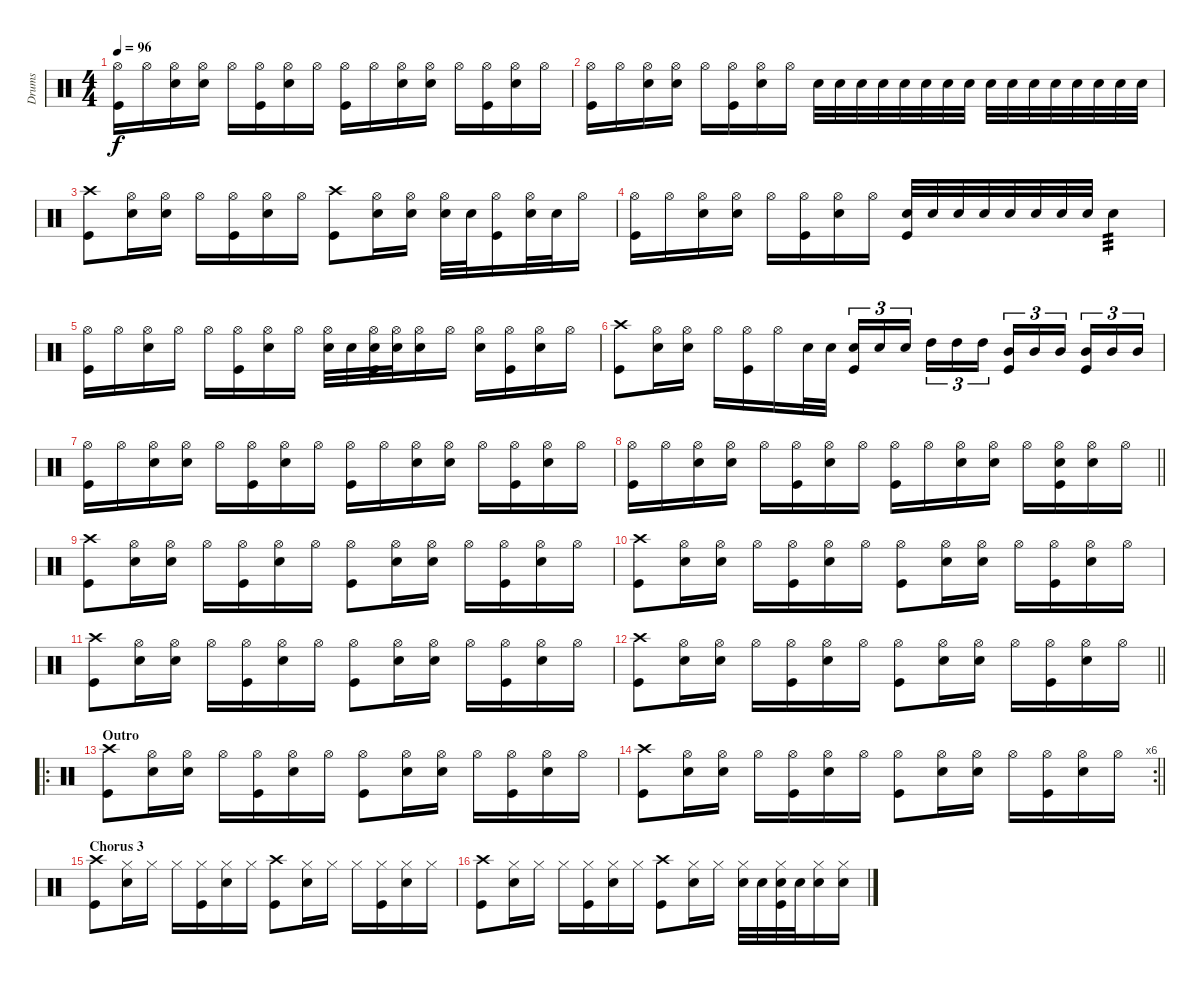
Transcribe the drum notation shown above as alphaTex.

\track ("Drums" "Drums") {instrument percussion}
\staff {score}
\articulation defaults
\ts (4 4)
\tempo 96
\clef neutral
\ks c
("Hi-Hat (open)" "Kick (hit)").16{dy f} "Hi-Hat (open)".16 ("Hi-Hat (open)" "Snare (hit) 2").16 ("Hi-Hat (open)" "Snare (hit) 2").16 "Hi-Hat (open)".16 ("Hi-Hat (open)" "Kick (hit)").16 ("Hi-Hat (open)" "Snare (hit) 2").16 "Hi-Hat (open)".16 ("Hi-Hat (open)" "Kick (hit)").16 "Hi-Hat (open)".16 ("Hi-Hat (open)" "Snare (hit) 2").16 ("Hi-Hat (open)" "Snare (hit) 2").16 "Hi-Hat (open)".16 ("Hi-Hat (open)" "Kick (hit)").16 ("Hi-Hat (open)" "Snare (hit) 2").16 "Hi-Hat (open)".16 |
("Hi-Hat (open)" "Kick (hit)").16 "Hi-Hat (open)".16 ("Hi-Hat (open)" "Snare (hit) 2").16 ("Hi-Hat (open)" "Snare (hit) 2").16 "Hi-Hat (open)".16 ("Hi-Hat (open)" "Kick (hit)").16 ("Hi-Hat (open)" "Snare (hit) 2").16 "Hi-Hat (open)".16 "Snare (hit) 2".32 "Snare (hit) 2".32 "Snare (hit) 2".32 "Snare (hit) 2".32 "Snare (hit) 2".32 "Snare (hit) 2".32 "Snare (hit) 2".32 "Snare (hit) 2".32 "Snare (hit) 2".32 "Snare (hit) 2".32 "Snare (hit) 2".32 "Snare (hit) 2".32 "Snare (hit) 2".32 "Snare (hit) 2".32 "Snare (hit) 2".32 "Snare (hit) 2".32 |
("Crash high (hit)" "Kick (hit)").8 ("Hi-Hat (open)" "Snare (hit) 2").16 ("Hi-Hat (open)" "Snare (hit) 2").16 "Hi-Hat (open)".16 ("Hi-Hat (open)" "Kick (hit)").16 ("Hi-Hat (open)" "Snare (hit) 2").16 "Hi-Hat (open)".16 ("Crash high (hit)" "Kick (hit)").8 ("Hi-Hat (open)" "Snare (hit) 2").16 ("Hi-Hat (open)" "Snare (hit) 2").16 ("Hi-Hat (open)" "Snare (hit) 2").32 "Snare (hit) 2".32 ("Hi-Hat (open)" "Kick (hit)").16 ("Hi-Hat (open)" "Snare (hit) 2").32 "Snare (hit) 2".32 "Hi-Hat (open)".16 |
("Hi-Hat (open)" "Kick (hit)").16 "Hi-Hat (open)".16 ("Hi-Hat (open)" "Snare (hit) 2").16 ("Hi-Hat (open)" "Snare (hit) 2").16 "Hi-Hat (open)".16 ("Hi-Hat (open)" "Kick (hit)").16 ("Hi-Hat (open)" "Snare (hit) 2").16 "Hi-Hat (open)".16 ("Snare (hit) 2" "Kick (hit)").32 "Snare (hit) 2".32 "Snare (hit) 2".32 "Snare (hit) 2".32 "Snare (hit) 2".32 "Snare (hit) 2".32 "Snare (hit) 2".32 "Snare (hit) 2".32 "Snare (hit) 2".4{tp 3} |
("Hi-Hat (open)" "Kick (hit)").16 "Hi-Hat (open)".16 ("Hi-Hat (open)" "Snare (hit) 2").16 "Hi-Hat (open)".16 "Hi-Hat (open)".16 ("Hi-Hat (open)" "Kick (hit)").16 ("Hi-Hat (open)" "Snare (hit) 2").16 "Hi-Hat (open)".16 ("Hi-Hat (open)" "Snare (hit) 2").32 "Snare (hit) 2".32 ("Hi-Hat (open)" "Snare (hit) 2" "Kick (hit)").32 ("Hi-Hat (open)" "Snare (hit) 2").32 ("Hi-Hat (open)" "Snare (hit) 2").16 "Hi-Hat (open)".16 ("Hi-Hat (open)" "Snare (hit) 2").16 ("Hi-Hat (open)" "Kick (hit)").16 ("Hi-Hat (open)" "Snare (hit) 2").16 "Hi-Hat (open)".16 |
("Crash high (hit)" "Kick (hit)").8 ("Hi-Hat (open)" "Snare (hit) 2").16 ("Hi-Hat (open)" "Snare (hit) 2").16 "Hi-Hat (open)".16 ("Hi-Hat (open)" "Kick (hit)").16 "Hi-Hat (open)".16 "Snare (hit) 2".32 "Snare (hit) 2".32 ("Snare (hit) 2" "Kick (hit)").16{tu (3 2)} "Snare (hit) 2".16{tu (3 2)} "Snare (hit) 2".16{tu (3 2) beam splitsecondary} "High Tom (hit)".16{tu (3 2)} "High Tom (hit)".16{tu (3 2)} "High Tom (hit)".16{tu (3 2)} ("Mid Tom (hit)" "Kick (hit)").16{tu (3 2)} "Mid Tom (hit)".16{tu (3 2)} "Mid Tom (hit)".16{tu (3 2) beam splitsecondary} ("Mid Tom (hit)" "Kick (hit)").16{tu (3 2)} "Mid Tom (hit)".16{tu (3 2)} "Mid Tom (hit)".16{tu (3 2)} |
("Hi-Hat (open)" "Kick (hit)").16 "Hi-Hat (open)".16 ("Hi-Hat (open)" "Snare (hit) 2").16 ("Hi-Hat (open)" "Snare (hit) 2").16 "Hi-Hat (open)".16 ("Hi-Hat (open)" "Kick (hit)").16 ("Hi-Hat (open)" "Snare (hit) 2").16 "Hi-Hat (open)".16 ("Hi-Hat (open)" "Kick (hit)").16 "Hi-Hat (open)".16 ("Hi-Hat (open)" "Snare (hit) 2").16 ("Hi-Hat (open)" "Snare (hit) 2").16 "Hi-Hat (open)".16 ("Hi-Hat (open)" "Kick (hit)").16 ("Hi-Hat (open)" "Snare (hit) 2").16 "Hi-Hat (open)".16 |
\barLineRight lightlight
("Hi-Hat (open)" "Kick (hit)").16 "Hi-Hat (open)".16 ("Hi-Hat (open)" "Snare (hit) 2").16 ("Hi-Hat (open)" "Snare (hit) 2").16 "Hi-Hat (open)".16 ("Hi-Hat (open)" "Kick (hit)").16 ("Hi-Hat (open)" "Snare (hit) 2").16 "Hi-Hat (open)".16 ("Hi-Hat (open)" "Kick (hit)").16 "Hi-Hat (open)".16 ("Hi-Hat (open)" "Snare (hit) 2").16 ("Hi-Hat (open)" "Snare (hit) 2").16 "Hi-Hat (open)".16 ("Hi-Hat (open)" "Snare (hit) 2" "Kick (hit)").16 ("Hi-Hat (open)" "Snare (hit) 2").16 "Hi-Hat (open)".16 |
("Crash high (hit)" "Kick (hit)").8 ("Hi-Hat (open)" "Snare (hit) 2").16 ("Hi-Hat (open)" "Snare (hit) 2").16 "Hi-Hat (open)".16 ("Hi-Hat (open)" "Kick (hit)").16 ("Hi-Hat (open)" "Snare (hit) 2").16 "Hi-Hat (open)".16 ("Hi-Hat (open)" "Kick (hit)").8 ("Hi-Hat (open)" "Snare (hit) 2").16 ("Hi-Hat (open)" "Snare (hit) 2").16 "Hi-Hat (open)".16 ("Hi-Hat (open)" "Kick (hit)").16 ("Hi-Hat (open)" "Snare (hit) 2").16 "Hi-Hat (open)".16 |
("Crash high (hit)" "Kick (hit)").8 ("Hi-Hat (open)" "Snare (hit) 2").16 ("Hi-Hat (open)" "Snare (hit) 2").16 "Hi-Hat (open)".16 ("Hi-Hat (open)" "Kick (hit)").16 ("Hi-Hat (open)" "Snare (hit) 2").16 "Hi-Hat (open)".16 ("Hi-Hat (open)" "Kick (hit)").8 ("Hi-Hat (open)" "Snare (hit) 2").16 ("Hi-Hat (open)" "Snare (hit) 2").16 "Hi-Hat (open)".16 ("Hi-Hat (open)" "Kick (hit)").16 ("Hi-Hat (open)" "Snare (hit) 2").16 "Hi-Hat (open)".16 |
("Crash high (hit)" "Kick (hit)").8 ("Hi-Hat (open)" "Snare (hit) 2").16 ("Hi-Hat (open)" "Snare (hit) 2").16 "Hi-Hat (open)".16 ("Hi-Hat (open)" "Kick (hit)").16 ("Hi-Hat (open)" "Snare (hit) 2").16 "Hi-Hat (open)".16 ("Hi-Hat (open)" "Kick (hit)").8 ("Hi-Hat (open)" "Snare (hit) 2").16 ("Hi-Hat (open)" "Snare (hit) 2").16 "Hi-Hat (open)".16 ("Hi-Hat (open)" "Kick (hit)").16 ("Hi-Hat (open)" "Snare (hit) 2").16 "Hi-Hat (open)".16 |
\barLineRight lightlight
("Crash high (hit)" "Kick (hit)").8 ("Hi-Hat (open)" "Snare (hit) 2").16 ("Hi-Hat (open)" "Snare (hit) 2").16 "Hi-Hat (open)".16 ("Hi-Hat (open)" "Kick (hit)").16 ("Hi-Hat (open)" "Snare (hit) 2").16 "Hi-Hat (open)".16 ("Hi-Hat (open)" "Kick (hit)").8 ("Hi-Hat (open)" "Snare (hit) 2").16 ("Hi-Hat (open)" "Snare (hit) 2").16 "Hi-Hat (open)".16 ("Hi-Hat (open)" "Kick (hit)").16 ("Hi-Hat (open)" "Snare (hit) 2").16 "Hi-Hat (open)".16 |
\ro
\section ("" "Outro")
("Crash high (hit)" "Kick (hit)").8 ("Hi-Hat (open)" "Snare (hit) 2").16 ("Hi-Hat (open)" "Snare (hit) 2").16 "Hi-Hat (open)".16 ("Hi-Hat (open)" "Kick (hit)").16 ("Hi-Hat (open)" "Snare (hit) 2").16 "Hi-Hat (open)".16 ("Hi-Hat (open)" "Kick (hit)").8 ("Hi-Hat (open)" "Snare (hit) 2").16 ("Hi-Hat (open)" "Snare (hit) 2").16 "Hi-Hat (open)".16 ("Hi-Hat (open)" "Kick (hit)").16 ("Hi-Hat (open)" "Snare (hit) 2").16 "Hi-Hat (open)".16 |
\rc 6
\barLineRight lightlight
("Crash high (hit)" "Kick (hit)").8 ("Hi-Hat (open)" "Snare (hit) 2").16 ("Hi-Hat (open)" "Snare (hit) 2").16 "Hi-Hat (open)".16 ("Hi-Hat (open)" "Kick (hit)").16 ("Hi-Hat (open)" "Snare (hit) 2").16 "Hi-Hat (open)".16 ("Hi-Hat (open)" "Kick (hit)").8 ("Hi-Hat (open)" "Snare (hit) 2").16 ("Hi-Hat (open)" "Snare (hit) 2").16 "Hi-Hat (open)".16 ("Hi-Hat (open)" "Kick (hit)").16 ("Hi-Hat (open)" "Snare (hit) 2").16 "Hi-Hat (open)".16 |
\section ("" "Chorus 3")
("Crash high (hit)" "Kick (hit)").8 ("Hi-Hat (closed)" "Snare (hit) 2").16 "Hi-Hat (closed)".16 "Hi-Hat (closed)".16 ("Hi-Hat (closed)" "Kick (hit)").16 ("Hi-Hat (closed)" "Snare (hit) 2").16 "Hi-Hat (closed)".16 ("Crash high (hit)" "Kick (hit)").8 ("Hi-Hat (closed)" "Snare (hit) 2").16 "Hi-Hat (closed)".16 "Hi-Hat (closed)".16 ("Hi-Hat (closed)" "Kick (hit)").16 ("Hi-Hat (closed)" "Snare (hit) 2").16 "Hi-Hat (closed)".16 |
("Crash high (hit)" "Kick (hit)").8 ("Hi-Hat (closed)" "Snare (hit) 2").16 "Hi-Hat (closed)".16 "Hi-Hat (closed)".16 ("Hi-Hat (closed)" "Kick (hit)").16 ("Hi-Hat (closed)" "Snare (hit) 2").16 "Hi-Hat (closed)".16 ("Crash high (hit)" "Kick (hit)").8 ("Hi-Hat (closed)" "Snare (hit) 2").16 "Hi-Hat (closed)".16 ("Hi-Hat (closed)" "Snare (hit) 2").32 "Snare (hit) 2".32 ("Hi-Hat (closed)" "Snare (hit) 2" "Kick (hit)").32 "Snare (hit) 2".32 ("Hi-Hat (closed)" "Snare (hit) 2").16 ("Hi-Hat (closed)" "Snare (hit) 2").16
